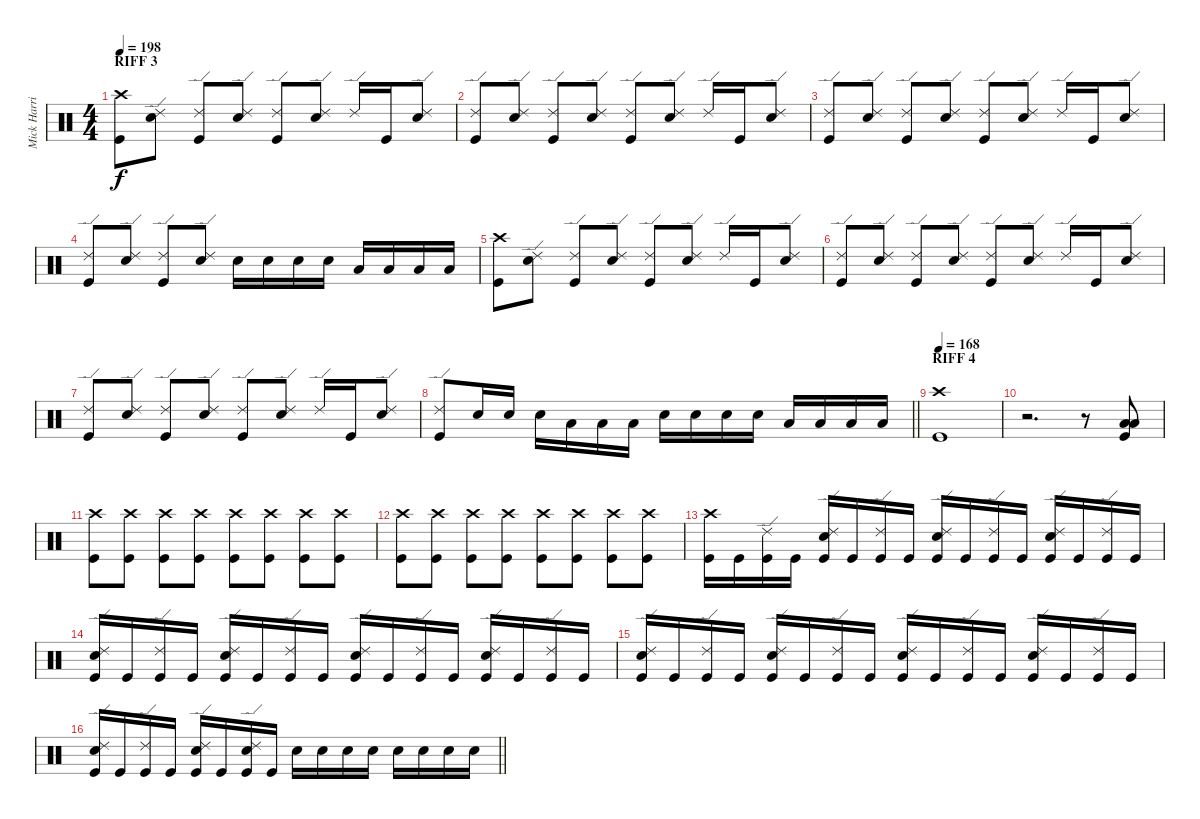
\track ("Mick Harris" "Mick Harri") {instrument percussion}
\staff {score}
\articulation defaults
\ts (4 4)
\section ("" "RIFF 3")
\tempo 198
\clef neutral
\ks c
("Crash high (hit)" "Kick (hit)").8{dy f} ("Ride (edge) 2" "Snare (hit) 2").8 ("Ride (edge) 2" "Kick (hit)").8 ("Ride (edge) 2" "Snare (hit) 2").8 ("Ride (edge) 2" "Kick (hit)").8 ("Ride (edge) 2" "Snare (hit) 2").8 "Ride (edge) 2".16 "Kick (hit)".16 ("Ride (edge) 2" "Snare (hit) 2").8 |
("Ride (edge) 2" "Kick (hit)").8 ("Ride (edge) 2" "Snare (hit) 2").8 ("Ride (edge) 2" "Kick (hit)").8 ("Ride (edge) 2" "Snare (hit) 2").8 ("Ride (edge) 2" "Kick (hit)").8 ("Ride (edge) 2" "Snare (hit) 2").8 "Ride (edge) 2".16 "Kick (hit)".16 ("Ride (edge) 2" "Snare (hit) 2").8 |
("Ride (edge) 2" "Kick (hit)").8 ("Ride (edge) 2" "Snare (hit) 2").8 ("Ride (edge) 2" "Kick (hit)").8 ("Ride (edge) 2" "Snare (hit) 2").8 ("Ride (edge) 2" "Kick (hit)").8 ("Ride (edge) 2" "Snare (hit) 2").8 "Ride (edge) 2".16 "Kick (hit)".16 ("Ride (edge) 2" "Snare (hit) 2").8 |
("Ride (edge) 2" "Kick (hit)").8 ("Ride (edge) 2" "Snare (hit) 2").8 ("Ride (edge) 2" "Kick (hit)").8 ("Ride (edge) 2" "Snare (hit) 2").8 "Snare (hit) 2".16 "Snare (hit) 2".16 "Snare (hit) 2".16 "Snare (hit) 2".16 "Low Tom (hit)".16 "Low Tom (hit)".16 "Low Tom (hit)".16 "Low Tom (hit)".16 |
("Crash high (hit)" "Kick (hit)").8 ("Ride (edge) 2" "Snare (hit) 2").8 ("Ride (edge) 2" "Kick (hit)").8 ("Ride (edge) 2" "Snare (hit) 2").8 ("Ride (edge) 2" "Kick (hit)").8 ("Ride (edge) 2" "Snare (hit) 2").8 "Ride (edge) 2".16 "Kick (hit)".16 ("Ride (edge) 2" "Snare (hit) 2").8 |
("Ride (edge) 2" "Kick (hit)").8 ("Ride (edge) 2" "Snare (hit) 2").8 ("Ride (edge) 2" "Kick (hit)").8 ("Ride (edge) 2" "Snare (hit) 2").8 ("Ride (edge) 2" "Kick (hit)").8 ("Ride (edge) 2" "Snare (hit) 2").8 "Ride (edge) 2".16 "Kick (hit)".16 ("Ride (edge) 2" "Snare (hit) 2").8 |
("Ride (edge) 2" "Kick (hit)").8 ("Ride (edge) 2" "Snare (hit) 2").8 ("Ride (edge) 2" "Kick (hit)").8 ("Ride (edge) 2" "Snare (hit) 2").8 ("Ride (edge) 2" "Kick (hit)").8 ("Ride (edge) 2" "Snare (hit) 2").8 "Ride (edge) 2".16 "Kick (hit)".16 ("Ride (edge) 2" "Snare (hit) 2").8 |
\barLineRight lightlight
("Ride (edge) 2" "Kick (hit)").8 "Snare (hit) 2".16 "Snare (hit) 2".16 "Snare (hit) 2".16 "Low Tom (hit)".16 "Low Tom (hit)".16 "Low Tom (hit)".16 "Snare (hit) 2".16 "Snare (hit) 2".16 "Snare (hit) 2".16 "Snare (hit) 2".16 "Low Tom (hit)".16 "Low Tom (hit)".16 "Low Floor Tom (hit)".16 "Low Floor Tom (hit)".16 |
\section ("" "RIFF 4")
\tempo 168
("Crash high (hit)" "Kick (hit)").1 |
r.2{d} r.8 ("Low Floor Tom (hit)" "Low Tom (hit)" "Kick (hit)").8 |
("Crash high (hit)" "Kick (hit)").8 ("Crash high (hit)" "Kick (hit)").8 ("Crash high (hit)" "Kick (hit)").8 ("Crash high (hit)" "Kick (hit)").8 ("Crash high (hit)" "Kick (hit)").8 ("Crash high (hit)" "Kick (hit)").8 ("Crash high (hit)" "Kick (hit)").8 ("Crash high (hit)" "Kick (hit)").8 |
("Crash high (hit)" "Kick (hit)").8 ("Crash high (hit)" "Kick (hit)").8 ("Crash high (hit)" "Kick (hit)").8 ("Crash high (hit)" "Kick (hit)").8 ("Crash high (hit)" "Kick (hit)").8 ("Crash high (hit)" "Kick (hit)").8 ("Crash high (hit)" "Kick (hit)").8 ("Crash high (hit)" "Kick (hit)").8 |
("Crash high (hit)" "Kick (hit)").16 "Kick (hit)".16 ("Ride (edge) 2" "Kick (hit)").16 "Kick (hit)".16 ("Ride (edge) 2" "Snare (hit) 2" "Kick (hit)").16 "Kick (hit)".16 ("Ride (edge) 2" "Kick (hit)").16 "Kick (hit)".16 ("Ride (edge) 2" "Snare (hit) 2" "Kick (hit)").16 "Kick (hit)".16 ("Ride (edge) 2" "Kick (hit)").16 "Kick (hit)".16 ("Ride (edge) 2" "Snare (hit) 2" "Kick (hit)").16 "Kick (hit)".16 ("Ride (edge) 2" "Kick (hit)").16 "Kick (hit)".16 |
("Ride (edge) 2" "Snare (hit) 2" "Kick (hit)").16 "Kick (hit)".16 ("Ride (edge) 2" "Kick (hit)").16 "Kick (hit)".16 ("Ride (edge) 2" "Snare (hit) 2" "Kick (hit)").16 "Kick (hit)".16 ("Ride (edge) 2" "Kick (hit)").16 "Kick (hit)".16 ("Ride (edge) 2" "Snare (hit) 2" "Kick (hit)").16 "Kick (hit)".16 ("Ride (edge) 2" "Kick (hit)").16 "Kick (hit)".16 ("Ride (edge) 2" "Snare (hit) 2" "Kick (hit)").16 "Kick (hit)".16 ("Ride (edge) 2" "Kick (hit)").16 "Kick (hit)".16 |
("Ride (edge) 2" "Snare (hit) 2" "Kick (hit)").16 "Kick (hit)".16 ("Ride (edge) 2" "Kick (hit)").16 "Kick (hit)".16 ("Ride (edge) 2" "Snare (hit) 2" "Kick (hit)").16 "Kick (hit)".16 ("Ride (edge) 2" "Kick (hit)").16 "Kick (hit)".16 ("Ride (edge) 2" "Snare (hit) 2" "Kick (hit)").16 "Kick (hit)".16 ("Ride (edge) 2" "Kick (hit)").16 "Kick (hit)".16 ("Ride (edge) 2" "Snare (hit) 2" "Kick (hit)").16 "Kick (hit)".16 ("Ride (edge) 2" "Kick (hit)").16 "Kick (hit)".16 |
\barLineRight lightlight
("Ride (edge) 2" "Snare (hit) 2" "Kick (hit)").16 "Kick (hit)".16 ("Ride (edge) 2" "Kick (hit)").16 "Kick (hit)".16 ("Ride (edge) 2" "Snare (hit) 2" "Kick (hit)").16 "Kick (hit)".16 ("Ride (edge) 2" "Snare (hit) 2" "Kick (hit)").16 "Kick (hit)".16 "Snare (hit) 2".16 "Snare (hit) 2".16 "Snare (hit) 2".16 "Snare (hit) 2".16 "Snare (hit) 2".16 "Snare (hit) 2".16 "Snare (hit) 2".16 "Snare (hit) 2".16
